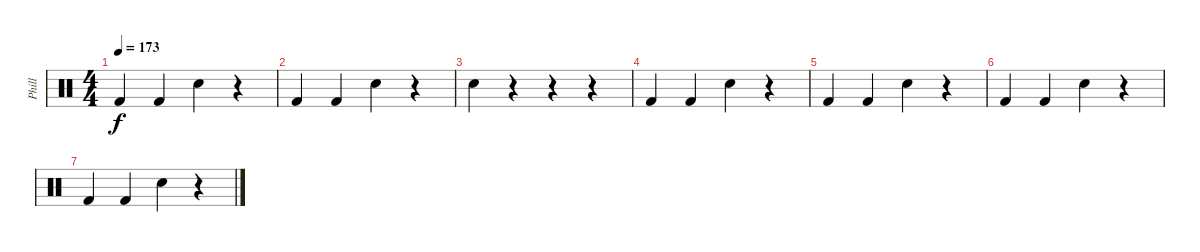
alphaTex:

\track ("Phill" "Phill") {instrument percussion}
\staff {score}
\articulation defaults
\ts (4 4)
\tempo 173
\clef neutral
\ks c "Kick (hit) 2".4{dy f} "Kick (hit) 2".4 "Electric Snare (hit)".4
r.4 |
"Kick (hit) 2".4 "Kick (hit) 2".4 "Electric Snare (hit)".4 r.4 |
"Electric Snare (hit)".4 r.4 r.4 r.4 |
"Kick (hit) 2".4 "Kick (hit) 2".4 "Electric Snare (hit)".4 r.4 |
"Kick (hit) 2".4 "Kick (hit) 2".4 "Electric Snare (hit)".4 r.4 |
"Kick (hit) 2".4 "Kick (hit) 2".4 "Electric Snare (hit)".4 r.4 |
"Kick (hit) 2".4 "Kick (hit) 2".4 "Electric Snare (hit)".4 r.4
